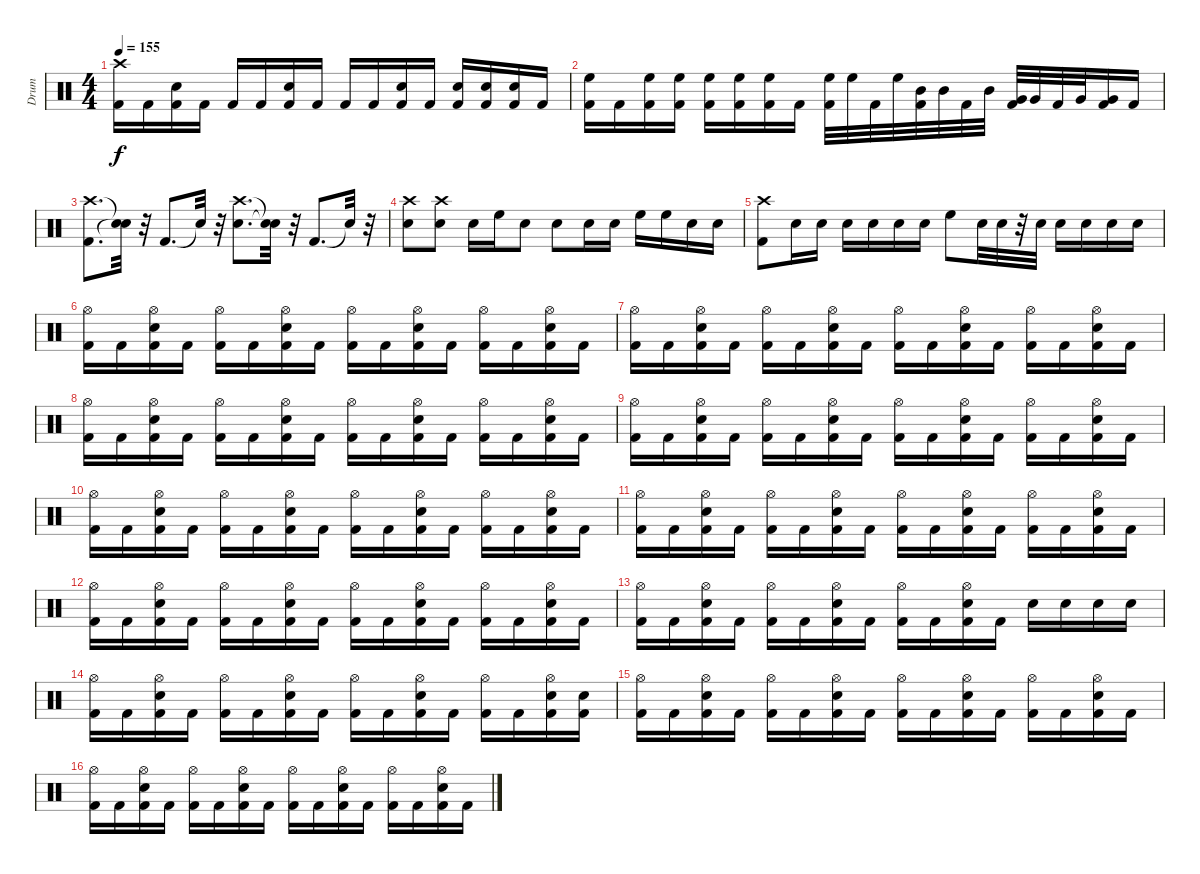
\track ("Drum" "Drum") {instrument percussion}
\staff {score}
\articulation defaults
\ts (4 4)
\tempo 155
\clef neutral
\ks c
("Kick (hit) 2" "Crash high (hit)").16{dy f} "Kick (hit) 2".16 ("Kick (hit) 2" "Snare (hit) 2").16 "Kick (hit) 2".16 "Kick (hit) 2".16 "Kick (hit) 2".16 ("Kick (hit) 2" "Snare (hit) 2").16 "Kick (hit) 2".16 "Kick (hit) 2".16 "Kick (hit) 2".16 ("Kick (hit) 2" "Snare (hit) 2").16 "Kick (hit) 2".16 ("Kick (hit) 2" "Snare (hit) 2").16 ("Kick (hit) 2" "Snare (hit) 2").16 ("Kick (hit) 2" "Snare (hit) 2").16 "Kick (hit) 2".16 |
("Kick (hit) 2" "High Floor Tom (hit)").16 "Kick (hit) 2".16 ("Kick (hit) 2" "High Floor Tom (hit)").16 ("Kick (hit) 2" "High Floor Tom (hit)").16 ("Kick (hit) 2" "High Floor Tom (hit)").16 ("Kick (hit) 2" "High Floor Tom (hit)").16 ("Kick (hit) 2" "High Floor Tom (hit)").16 "Kick (hit) 2".16 ("Kick (hit) 2" "High Floor Tom (hit)").32 "High Floor Tom (hit)".32 "Kick (hit) 2".32 "High Floor Tom (hit)".32 ("Kick (hit) 2" "Mid Tom (hit)").32 "Mid Tom (hit)".32 "Kick (hit) 2".32 "Mid Tom (hit)".32 ("Kick (hit) 2" "Very Low Tom (hit)").32 "Very Low Tom (hit)".32 "Kick (hit) 2".32 "Very Low Tom (hit)".32 ("Kick (hit) 2" "Very Low Tom (hit)").16 "Kick (hit) 2".16 |
("Kick (hit) 2" "Crash high (hit)").8{d} ("Snare (hit)"{t} "Snare (hit)"{t}).32 r.32 "Kick (hit) 2".8{d} "Snare (hit)"{t}.32 r.32 ("Snare (hit) 2" "Crash high (hit)").8{d} ("Snare (hit)"{t} "Snare (hit)"{t}).32 r.32 "Kick (hit) 2".8{d} "Snare (hit)"{t}.32 r.32 |
("Snare (hit) 2" "Crash high (hit)").8 ("Snare (hit) 2" "Crash high (hit)").8 "Snare (hit) 2".16 "High Floor Tom (hit)".16 "Snare (hit) 2".8 "Snare (hit) 2".8 "Snare (hit) 2".16 "Snare (hit) 2".16 "High Floor Tom (hit)".16 "High Floor Tom (hit)".16 "Snare (hit) 2".16 "Snare (hit) 2".16 |
("Kick (hit) 2" "Crash high (hit)").8 "Snare (hit) 2".16 "Snare (hit) 2".16 "Snare (hit) 2".16 "Snare (hit) 2".16 "Snare (hit) 2".16 "Snare (hit) 2".16 "High Floor Tom (hit)".8 "Snare (hit) 2".32 "Snare (hit) 2".32 r.32 "Snare (hit) 2".32 "Snare (hit) 2".16 "Snare (hit) 2".16 "Snare (hit) 2".16 "Snare (hit) 2".16 |
("Kick (hit) 2" "Hi-Hat (open)").16 "Kick (hit) 2".16 ("Kick (hit) 2" "Snare (hit) 2" "Hi-Hat (open)").16 "Kick (hit) 2".16 ("Kick (hit) 2" "Hi-Hat (open)").16 "Kick (hit) 2".16 ("Kick (hit) 2" "Snare (hit) 2" "Hi-Hat (open)").16 "Kick (hit) 2".16 ("Kick (hit) 2" "Hi-Hat (open)").16 "Kick (hit) 2".16 ("Kick (hit) 2" "Snare (hit) 2" "Hi-Hat (open)").16 "Kick (hit) 2".16 ("Kick (hit) 2" "Hi-Hat (open)").16 "Kick (hit) 2".16 ("Kick (hit) 2" "Snare (hit) 2" "Hi-Hat (open)").16 "Kick (hit) 2".16 |
("Kick (hit) 2" "Hi-Hat (open)").16 "Kick (hit) 2".16 ("Kick (hit) 2" "Snare (hit) 2" "Hi-Hat (open)").16 "Kick (hit) 2".16 ("Kick (hit) 2" "Hi-Hat (open)").16 "Kick (hit) 2".16 ("Kick (hit) 2" "Snare (hit) 2" "Hi-Hat (open)").16 "Kick (hit) 2".16 ("Kick (hit) 2" "Hi-Hat (open)").16 "Kick (hit) 2".16 ("Kick (hit) 2" "Snare (hit) 2" "Hi-Hat (open)").16 "Kick (hit) 2".16 ("Kick (hit) 2" "Hi-Hat (open)").16 "Kick (hit) 2".16 ("Kick (hit) 2" "Snare (hit) 2" "Hi-Hat (open)").16 "Kick (hit) 2".16 |
("Kick (hit) 2" "Hi-Hat (open)").16 "Kick (hit) 2".16 ("Kick (hit) 2" "Snare (hit) 2" "Hi-Hat (open)").16 "Kick (hit) 2".16 ("Kick (hit) 2" "Hi-Hat (open)").16 "Kick (hit) 2".16 ("Kick (hit) 2" "Snare (hit) 2" "Hi-Hat (open)").16 "Kick (hit) 2".16 ("Kick (hit) 2" "Hi-Hat (open)").16 "Kick (hit) 2".16 ("Kick (hit) 2" "Snare (hit) 2" "Hi-Hat (open)").16 "Kick (hit) 2".16 ("Kick (hit) 2" "Hi-Hat (open)").16 "Kick (hit) 2".16 ("Kick (hit) 2" "Snare (hit) 2" "Hi-Hat (open)").16 "Kick (hit) 2".16 |
("Kick (hit) 2" "Hi-Hat (open)").16 "Kick (hit) 2".16 ("Kick (hit) 2" "Snare (hit) 2" "Hi-Hat (open)").16 "Kick (hit) 2".16 ("Kick (hit) 2" "Hi-Hat (open)").16 "Kick (hit) 2".16 ("Kick (hit) 2" "Snare (hit) 2" "Hi-Hat (open)").16 "Kick (hit) 2".16 ("Kick (hit) 2" "Hi-Hat (open)").16 "Kick (hit) 2".16 ("Kick (hit) 2" "Snare (hit) 2" "Hi-Hat (open)").16 "Kick (hit) 2".16 ("Kick (hit) 2" "Hi-Hat (open)").16 "Kick (hit) 2".16 ("Kick (hit) 2" "Snare (hit) 2" "Hi-Hat (open)").16 "Kick (hit) 2".16 |
("Kick (hit) 2" "Hi-Hat (open)").16 "Kick (hit) 2".16 ("Kick (hit) 2" "Snare (hit) 2" "Hi-Hat (open)").16 "Kick (hit) 2".16 ("Kick (hit) 2" "Hi-Hat (open)").16 "Kick (hit) 2".16 ("Kick (hit) 2" "Snare (hit) 2" "Hi-Hat (open)").16 "Kick (hit) 2".16 ("Kick (hit) 2" "Hi-Hat (open)").16 "Kick (hit) 2".16 ("Kick (hit) 2" "Snare (hit) 2" "Hi-Hat (open)").16 "Kick (hit) 2".16 ("Kick (hit) 2" "Hi-Hat (open)").16 "Kick (hit) 2".16 ("Kick (hit) 2" "Snare (hit) 2" "Hi-Hat (open)").16 "Kick (hit) 2".16 |
("Kick (hit) 2" "Hi-Hat (open)").16 "Kick (hit) 2".16 ("Kick (hit) 2" "Snare (hit) 2" "Hi-Hat (open)").16 "Kick (hit) 2".16 ("Kick (hit) 2" "Hi-Hat (open)").16 "Kick (hit) 2".16 ("Kick (hit) 2" "Snare (hit) 2" "Hi-Hat (open)").16 "Kick (hit) 2".16 ("Kick (hit) 2" "Hi-Hat (open)").16 "Kick (hit) 2".16 ("Kick (hit) 2" "Snare (hit) 2" "Hi-Hat (open)").16 "Kick (hit) 2".16 ("Kick (hit) 2" "Hi-Hat (open)").16 "Kick (hit) 2".16 ("Kick (hit) 2" "Snare (hit) 2" "Hi-Hat (open)").16 "Kick (hit) 2".16 |
("Kick (hit) 2" "Hi-Hat (open)").16 "Kick (hit) 2".16 ("Kick (hit) 2" "Snare (hit) 2" "Hi-Hat (open)").16 "Kick (hit) 2".16 ("Kick (hit) 2" "Hi-Hat (open)").16 "Kick (hit) 2".16 ("Kick (hit) 2" "Snare (hit) 2" "Hi-Hat (open)").16 "Kick (hit) 2".16 ("Kick (hit) 2" "Hi-Hat (open)").16 "Kick (hit) 2".16 ("Kick (hit) 2" "Snare (hit) 2" "Hi-Hat (open)").16 "Kick (hit) 2".16 ("Kick (hit) 2" "Hi-Hat (open)").16 "Kick (hit) 2".16 ("Kick (hit) 2" "Snare (hit) 2" "Hi-Hat (open)").16 "Kick (hit) 2".16 |
("Kick (hit) 2" "Hi-Hat (open)").16 "Kick (hit) 2".16 ("Kick (hit) 2" "Snare (hit) 2" "Hi-Hat (open)").16 "Kick (hit) 2".16 ("Kick (hit) 2" "Hi-Hat (open)").16 "Kick (hit) 2".16 ("Kick (hit) 2" "Snare (hit) 2" "Hi-Hat (open)").16 "Kick (hit) 2".16 ("Kick (hit) 2" "Hi-Hat (open)").16 "Kick (hit) 2".16 ("Kick (hit) 2" "Snare (hit) 2" "Hi-Hat (open)").16 "Kick (hit) 2".16 "Snare (hit) 2".16 "Snare (hit) 2".16 "Snare (hit) 2".16 "Snare (hit) 2".16 |
("Kick (hit) 2" "Hi-Hat (open)").16 "Kick (hit) 2".16 ("Kick (hit) 2" "Snare (hit) 2" "Hi-Hat (open)").16 "Kick (hit) 2".16 ("Kick (hit) 2" "Hi-Hat (open)").16 "Kick (hit) 2".16 ("Kick (hit) 2" "Snare (hit) 2" "Hi-Hat (open)").16 "Kick (hit) 2".16 ("Kick (hit) 2" "Hi-Hat (open)").16 "Kick (hit) 2".16 ("Kick (hit) 2" "Snare (hit) 2" "Hi-Hat (open)").16 "Kick (hit) 2".16 ("Kick (hit) 2" "Hi-Hat (open)").16 "Kick (hit) 2".16 ("Kick (hit) 2" "Hi-Hat (open)" "Snare (hit) 2").16 ("Kick (hit) 2" "Snare (hit) 2").16 |
("Kick (hit) 2" "Hi-Hat (open)").16 "Kick (hit) 2".16 ("Kick (hit) 2" "Snare (hit) 2" "Hi-Hat (open)").16 "Kick (hit) 2".16 ("Kick (hit) 2" "Hi-Hat (open)").16 "Kick (hit) 2".16 ("Kick (hit) 2" "Snare (hit) 2" "Hi-Hat (open)").16 "Kick (hit) 2".16 ("Kick (hit) 2" "Hi-Hat (open)").16 "Kick (hit) 2".16 ("Kick (hit) 2" "Snare (hit) 2" "Hi-Hat (open)").16 "Kick (hit) 2".16 ("Kick (hit) 2" "Hi-Hat (open)").16 "Kick (hit) 2".16 ("Kick (hit) 2" "Snare (hit) 2" "Hi-Hat (open)").16 "Kick (hit) 2".16 |
("Kick (hit) 2" "Hi-Hat (open)").16 "Kick (hit) 2".16 ("Kick (hit) 2" "Snare (hit) 2" "Hi-Hat (open)").16 "Kick (hit) 2".16 ("Kick (hit) 2" "Hi-Hat (open)").16 "Kick (hit) 2".16 ("Kick (hit) 2" "Snare (hit) 2" "Hi-Hat (open)").16 "Kick (hit) 2".16 ("Kick (hit) 2" "Hi-Hat (open)").16 "Kick (hit) 2".16 ("Kick (hit) 2" "Snare (hit) 2" "Hi-Hat (open)").16 "Kick (hit) 2".16 ("Kick (hit) 2" "Hi-Hat (open)").16 "Kick (hit) 2".16 ("Kick (hit) 2" "Snare (hit) 2" "Hi-Hat (open)").16 "Kick (hit) 2".16
